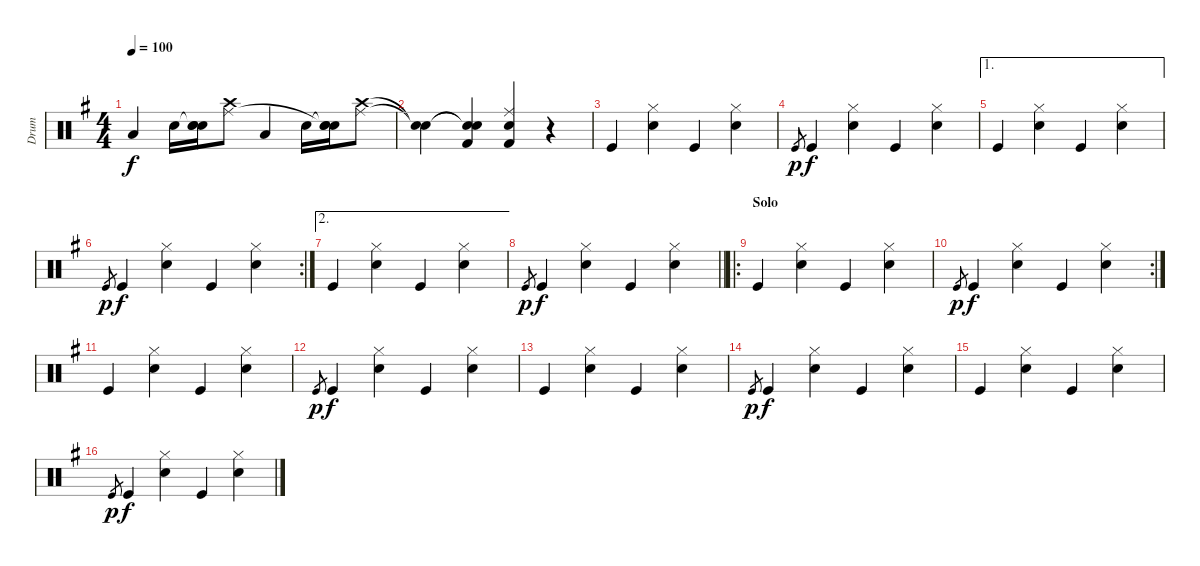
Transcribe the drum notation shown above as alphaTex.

\track ("Drum" "Drum") {instrument percussion}
\staff {score}
\articulation defaults
\ts (4 4)
\tempo 100
\clef neutral
\ks eminor "Low Tom (hit)".4{dy f} "Snare (hit) 2".16
("Snare (hit)"{t} "Snare (hit)"{t} "Snare (hit) 2").16 ("Crash high (hit)" "Ride (middle)").8 "Low Tom (hit)".4 "Snare (hit) 2".16 ("Snare (hit)"{t} "Snare (hit)"{t} "Snare (hit) 2").16 ("Crash high (hit)" "Ride (middle)").8 |
("Snare (hit)"{t} "Snare (hit)"{t}).4 ("Snare (hit)"{t} "Snare (hit)"{t} "Kick (hit) 2").4 ("Ride (middle)" "Kick (hit) 2" "Snare (hit) 2").4 r.4 |
"Kick (hit)".4 ("Snare (hit) 2" "Hi-Hat (closed)").4 "Kick (hit)".4 ("Snare (hit) 2" "Hi-Hat (closed)").4 |
"Kick (hit)"{h}.8{gr dy p} "Kick (hit)".4{dy f volume 13} ("Snare (hit) 2" "Hi-Hat (closed)").4 "Kick (hit)".4 ("Snare (hit) 2" "Hi-Hat (closed)").4 |
\ae 1 "Kick (hit)".4
("Snare (hit) 2" "Hi-Hat (closed)").4 "Kick (hit)".4 ("Snare (hit) 2" "Hi-Hat (closed)").4 |
\rc 2 "Kick (hit)"{h}.8{gr dy p} "Kick (hit)".4{dy f}
("Snare (hit) 2" "Hi-Hat (closed)").4 "Kick (hit)".4 ("Snare (hit) 2" "Hi-Hat (closed)").4 |
\ae 2 "Kick (hit)".4
("Snare (hit) 2" "Hi-Hat (closed)").4 "Kick (hit)".4 ("Snare (hit) 2" "Hi-Hat (closed)").4 |
\barLineRight lightlight "Kick (hit)"{h}.8{gr dy p} "Kick (hit)".4{dy f}
("Snare (hit) 2" "Hi-Hat (closed)").4 "Kick (hit)".4 ("Snare (hit) 2" "Hi-Hat (closed)").4 |
\ro
\section ("" "Solo")
"Kick (hit)".4 ("Snare (hit) 2" "Hi-Hat (closed)").4 "Kick (hit)".4 ("Snare (hit) 2" "Hi-Hat (closed)").4 |
\rc 2 "Kick (hit)"{h}.8{gr dy p} "Kick (hit)".4{dy f}
("Snare (hit) 2" "Hi-Hat (closed)").4 "Kick (hit)".4 ("Snare (hit) 2" "Hi-Hat (closed)").4 |
"Kick (hit)".4 ("Snare (hit) 2" "Hi-Hat (closed)").4 "Kick (hit)".4 ("Snare (hit) 2" "Hi-Hat (closed)").4 |
"Kick (hit)"{h}.8{gr dy p} "Kick (hit)".4{dy f} ("Snare (hit) 2" "Hi-Hat (closed)").4 "Kick (hit)".4 ("Snare (hit) 2" "Hi-Hat (closed)").4 |
"Kick (hit)".4 ("Snare (hit) 2" "Hi-Hat (closed)").4 "Kick (hit)".4 ("Snare (hit) 2" "Hi-Hat (closed)").4 |
"Kick (hit)"{h}.8{gr dy p} "Kick (hit)".4{dy f} ("Snare (hit) 2" "Hi-Hat (closed)").4 "Kick (hit)".4 ("Snare (hit) 2" "Hi-Hat (closed)").4 |
"Kick (hit)".4 ("Snare (hit) 2" "Hi-Hat (closed)").4 "Kick (hit)".4 ("Snare (hit) 2" "Hi-Hat (closed)").4 |
"Kick (hit)"{h}.8{gr dy p} "Kick (hit)".4{dy f} ("Snare (hit) 2" "Hi-Hat (closed)").4 "Kick (hit)".4 ("Snare (hit) 2" "Hi-Hat (closed)").4
